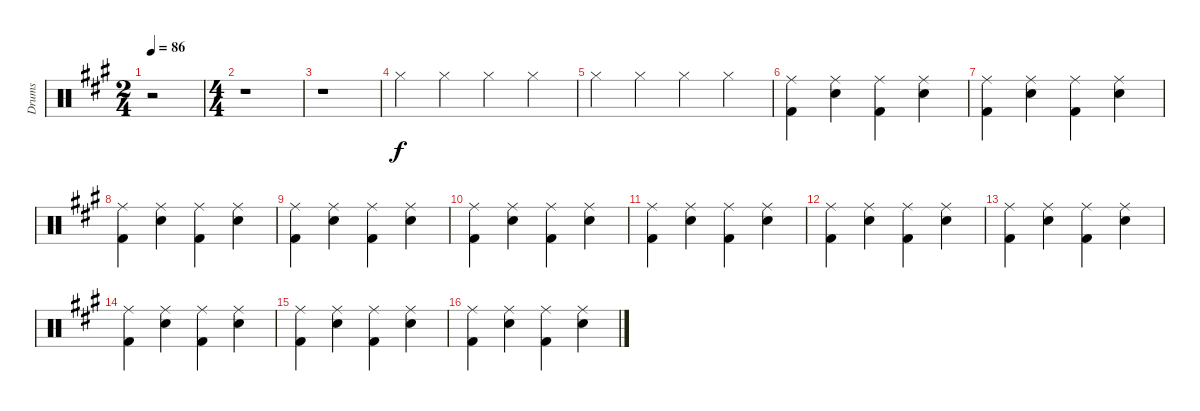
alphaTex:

\track ("Drums" "Drums") {instrument percussion}
\staff {score}
\articulation defaults
\ts (2 4)
\tempo 86
\clef neutral
\ks a
r.2{dy f} |
\ts (4 4)
r.1 |
r.1 |
"Hi-Hat (closed)".4 "Hi-Hat (closed)".4 "Hi-Hat (closed)".4 "Hi-Hat (closed)".4 |
"Hi-Hat (closed)".4 "Hi-Hat (closed)".4 "Hi-Hat (closed)".4 "Hi-Hat (closed)".4 |
("Ride (middle)" "Kick (hit) 2").4 ("Ride (middle)" "Snare (hit) 2").4 ("Ride (middle)" "Kick (hit) 2").4 ("Ride (middle)" "Snare (hit) 2").4 |
("Ride (middle)" "Kick (hit) 2").4 ("Ride (middle)" "Snare (hit) 2").4 ("Ride (middle)" "Kick (hit) 2").4 ("Ride (middle)" "Snare (hit) 2").4 |
("Ride (middle)" "Kick (hit) 2").4 ("Ride (middle)" "Snare (hit) 2").4 ("Ride (middle)" "Kick (hit) 2").4 ("Ride (middle)" "Snare (hit) 2").4 |
("Ride (middle)" "Kick (hit) 2").4 ("Ride (middle)" "Snare (hit) 2").4 ("Ride (middle)" "Kick (hit) 2").4 ("Ride (middle)" "Snare (hit) 2").4 |
("Ride (middle)" "Kick (hit) 2").4 ("Ride (middle)" "Snare (hit) 2").4 ("Ride (middle)" "Kick (hit) 2").4 ("Ride (middle)" "Snare (hit) 2").4 |
("Ride (middle)" "Kick (hit) 2").4 ("Ride (middle)" "Snare (hit) 2").4 ("Ride (middle)" "Kick (hit) 2").4 ("Ride (middle)" "Snare (hit) 2").4 |
("Ride (middle)" "Kick (hit) 2").4 ("Ride (middle)" "Snare (hit) 2").4 ("Ride (middle)" "Kick (hit) 2").4 ("Ride (middle)" "Snare (hit) 2").4 |
("Ride (middle)" "Kick (hit) 2").4 ("Ride (middle)" "Snare (hit) 2").4 ("Ride (middle)" "Kick (hit) 2").4 ("Ride (middle)" "Snare (hit) 2").4 |
("Ride (middle)" "Kick (hit) 2").4 ("Ride (middle)" "Snare (hit) 2").4 ("Ride (middle)" "Kick (hit) 2").4 ("Ride (middle)" "Snare (hit) 2").4 |
("Ride (middle)" "Kick (hit) 2").4 ("Ride (middle)" "Snare (hit) 2").4 ("Ride (middle)" "Kick (hit) 2").4 ("Ride (middle)" "Snare (hit) 2").4 |
("Ride (middle)" "Kick (hit) 2").4 ("Ride (middle)" "Snare (hit) 2").4 ("Ride (middle)" "Kick (hit) 2").4 ("Ride (middle)" "Snare (hit) 2").4
